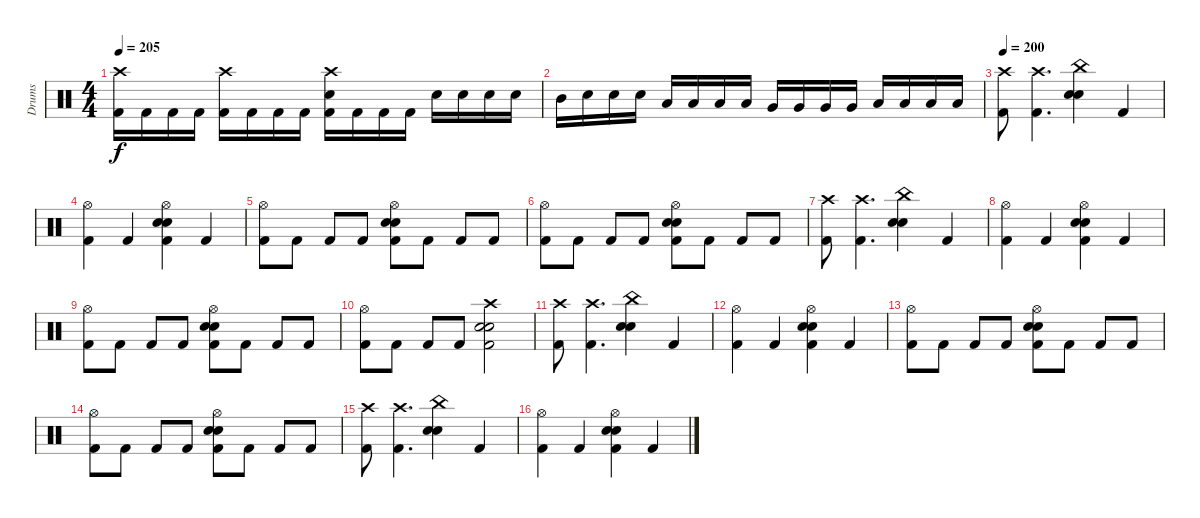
\track ("Drums" "Drums") {instrument percussion}
\staff {score}
\articulation defaults
\ts (4 4)
\tempo 205
\clef neutral
\ks c
("Crash high (hit)" "Kick (hit) 2").16{dy f} "Kick (hit) 2".16 "Kick (hit) 2".16 "Kick (hit) 2".16 ("Crash high (hit)" "Kick (hit) 2").16 "Kick (hit) 2".16 "Kick (hit) 2".16 "Kick (hit) 2".16 ("Crash high (hit)" "Snare (hit) 2" "Kick (hit) 2").16 "Kick (hit) 2".16 "Kick (hit) 2".16 "Kick (hit) 2".16 "Snare (hit) 2".16 "Snare (hit) 2".16 "Snare (hit) 2".16 "Snare (hit) 2".16 |
"Mid Tom (hit)".16 "Snare (hit) 2".16 "Snare (hit) 2".16 "Snare (hit) 2".16 "Low Tom (hit)".16 "Low Tom (hit)".16 "Low Tom (hit)".16 "Low Tom (hit)".16 "Very Low Tom (hit)".16 "Very Low Tom (hit)".16 "Very Low Tom (hit)".16 "Very Low Tom (hit)".16 "Low Floor Tom (hit)".16 "Low Floor Tom (hit)".16 "Low Floor Tom (hit)".16 "Low Floor Tom (hit)".16 |
\tempo 200
("Crash high (hit)" "Kick (hit) 2").8 ("Crash high (hit)" "Kick (hit) 2").4{d} ("China (hit)" "Snare (hit) 2" "Snare (hit) 2").4 "Kick (hit) 2".4 |
("Hi-Hat (open)" "Kick (hit) 2").4 "Kick (hit) 2".4 ("Hi-Hat (open)" "Snare (hit) 2" "Snare (hit) 2" "Kick (hit) 2").4 "Kick (hit) 2".4 |
("Hi-Hat (open)" "Kick (hit) 2").8 "Kick (hit) 2".8 "Kick (hit) 2".8 "Kick (hit) 2".8 ("Hi-Hat (open)" "Snare (hit) 2" "Snare (hit) 2" "Kick (hit) 2").8 "Kick (hit) 2".8 "Kick (hit) 2".8 "Kick (hit) 2".8 |
("Hi-Hat (open)" "Kick (hit) 2").8 "Kick (hit) 2".8 "Kick (hit) 2".8 "Kick (hit) 2".8 ("Hi-Hat (open)" "Snare (hit) 2" "Snare (hit) 2" "Kick (hit) 2").8 "Kick (hit) 2".8 "Kick (hit) 2".8 "Kick (hit) 2".8 |
("Crash high (hit)" "Kick (hit) 2").8 ("Crash high (hit)" "Kick (hit) 2").4{d} ("China (hit)" "Snare (hit) 2" "Snare (hit) 2").4 "Kick (hit) 2".4 |
("Hi-Hat (open)" "Kick (hit) 2").4 "Kick (hit) 2".4 ("Hi-Hat (open)" "Snare (hit) 2" "Snare (hit) 2" "Kick (hit) 2").4 "Kick (hit) 2".4 |
("Hi-Hat (open)" "Kick (hit) 2").8 "Kick (hit) 2".8 "Kick (hit) 2".8 "Kick (hit) 2".8 ("Hi-Hat (open)" "Snare (hit) 2" "Snare (hit) 2" "Kick (hit) 2").8 "Kick (hit) 2".8 "Kick (hit) 2".8 "Kick (hit) 2".8 |
("Hi-Hat (open)" "Kick (hit) 2").8 "Kick (hit) 2".8 "Kick (hit) 2".8 "Kick (hit) 2".8 ("Crash high (hit)" "Snare (hit) 2" "Snare (hit) 2" "Kick (hit) 2").2 |
("Crash high (hit)" "Kick (hit) 2").8 ("Crash high (hit)" "Kick (hit) 2").4{d} ("China (hit)" "Snare (hit) 2" "Snare (hit) 2").4 "Kick (hit) 2".4 |
("Hi-Hat (open)" "Kick (hit) 2").4 "Kick (hit) 2".4 ("Hi-Hat (open)" "Snare (hit) 2" "Snare (hit) 2" "Kick (hit) 2").4 "Kick (hit) 2".4 |
("Hi-Hat (open)" "Kick (hit) 2").8 "Kick (hit) 2".8 "Kick (hit) 2".8 "Kick (hit) 2".8 ("Hi-Hat (open)" "Snare (hit) 2" "Snare (hit) 2" "Kick (hit) 2").8 "Kick (hit) 2".8 "Kick (hit) 2".8 "Kick (hit) 2".8 |
("Hi-Hat (open)" "Kick (hit) 2").8 "Kick (hit) 2".8 "Kick (hit) 2".8 "Kick (hit) 2".8 ("Hi-Hat (open)" "Snare (hit) 2" "Snare (hit) 2" "Kick (hit) 2").8 "Kick (hit) 2".8 "Kick (hit) 2".8 "Kick (hit) 2".8 |
("Crash high (hit)" "Kick (hit) 2").8 ("Crash high (hit)" "Kick (hit) 2").4{d} ("China (hit)" "Snare (hit) 2" "Snare (hit) 2").4 "Kick (hit) 2".4 |
("Hi-Hat (open)" "Kick (hit) 2").4 "Kick (hit) 2".4 ("Hi-Hat (open)" "Snare (hit) 2" "Snare (hit) 2" "Kick (hit) 2").4 "Kick (hit) 2".4
